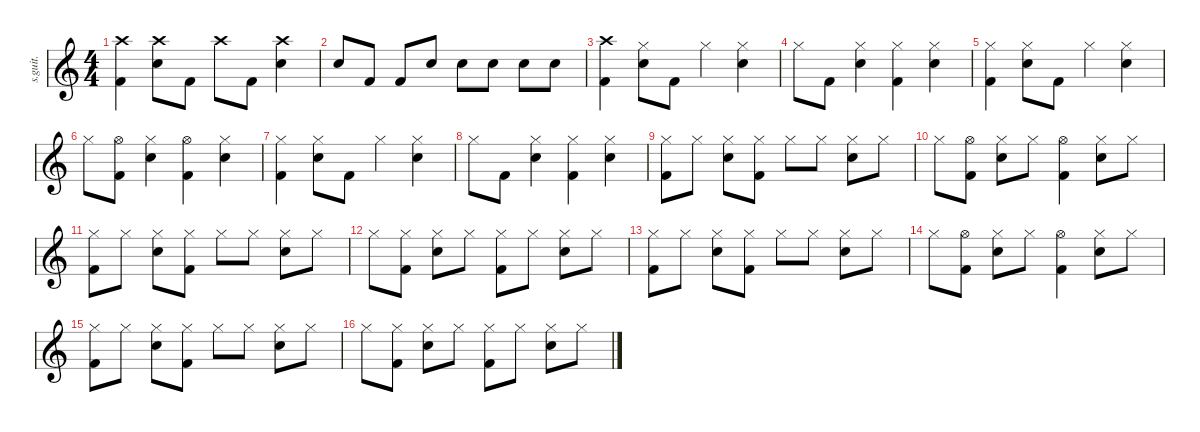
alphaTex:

\defaultSystemsLayout 4
\hideDynamics
\bracketExtendMode nobrackets
\track ("" "s.guit.") {instrument percussion}
\staff {score}
\articulation defaults
\ts (4 4)
\tempo (190 hide)
\clef g2
\ks c
("Crash high (hit)" "Kick (hit) 2").4{dy f} ("Crash high (hit)" "Snare (hit) 2").8 "Kick (hit) 2".8 "Crash high (hit)".8 "Kick (hit) 2".8 ("Crash high (hit)" "Snare (hit) 2").4 |
"Snare (hit) 2".8 "Kick (hit) 2".8 "Kick (hit) 2".8 "Snare (hit) 2".8 "Snare (hit) 2".8 "Snare (hit) 2".8 "Snare (hit) 2".8 "Snare (hit) 2".8 |
("Crash high (hit)" "Kick (hit) 2").4 ("Hi-Hat (closed)" "Snare (hit) 2").8 "Kick (hit) 2".8 "Hi-Hat (closed)".4 ("Hi-Hat (closed)" "Snare (hit) 2").4 |
"Hi-Hat (closed)".8 "Kick (hit) 2".8 ("Hi-Hat (closed)" "Snare (hit) 2").4 ("Hi-Hat (closed)" "Kick (hit) 2").4 ("Hi-Hat (closed)" "Snare (hit) 2").4 |
("Hi-Hat (closed)" "Kick (hit) 2").4 ("Hi-Hat (closed)" "Snare (hit) 2").8 "Kick (hit) 2".8 "Hi-Hat (closed)".4 ("Hi-Hat (closed)" "Snare (hit) 2").4 |
"Hi-Hat (closed)".8 ("Hi-Hat (open)" "Kick (hit) 2").8 ("Hi-Hat (closed)" "Snare (hit) 2").4 ("Hi-Hat (open)" "Kick (hit) 2").4 ("Hi-Hat (closed)" "Snare (hit) 2").4 |
("Hi-Hat (closed)" "Kick (hit) 2").4 ("Hi-Hat (closed)" "Snare (hit) 2").8 "Kick (hit) 2".8 "Hi-Hat (closed)".4 ("Hi-Hat (closed)" "Snare (hit) 2").4 |
"Hi-Hat (closed)".8 "Kick (hit) 2".8 ("Hi-Hat (closed)" "Snare (hit) 2").4 ("Hi-Hat (closed)" "Kick (hit) 2").4 ("Hi-Hat (closed)" "Snare (hit) 2").4 |
("Hi-Hat (closed)" "Kick (hit) 2").8 "Hi-Hat (closed)".8 ("Hi-Hat (closed)" "Snare (hit) 2").8 ("Hi-Hat (closed)" "Kick (hit) 2").8 "Hi-Hat (closed)".8 "Hi-Hat (closed)".8 ("Hi-Hat (closed)" "Snare (hit) 2").8 "Hi-Hat (closed)".8 |
"Hi-Hat (closed)".8 ("Hi-Hat (open)" "Kick (hit) 2").8 ("Hi-Hat (closed)" "Snare (hit) 2").8 "Hi-Hat (closed)".8 ("Hi-Hat (open)" "Kick (hit) 2").4 ("Hi-Hat (closed)" "Snare (hit) 2").8 "Hi-Hat (closed)".8 |
("Hi-Hat (closed)" "Kick (hit) 2").8 "Hi-Hat (closed)".8 ("Hi-Hat (closed)" "Snare (hit) 2").8 ("Hi-Hat (closed)" "Kick (hit) 2").8 "Hi-Hat (closed)".8 "Hi-Hat (closed)".8 ("Hi-Hat (closed)" "Snare (hit) 2").8 "Hi-Hat (closed)".8 |
"Hi-Hat (closed)".8 ("Hi-Hat (closed)" "Kick (hit) 2").8 ("Hi-Hat (closed)" "Snare (hit) 2").8 "Hi-Hat (closed)".8 ("Hi-Hat (closed)" "Kick (hit) 2").8 "Hi-Hat (closed)".8 ("Hi-Hat (closed)" "Snare (hit) 2").8 "Hi-Hat (closed)".8 |
("Hi-Hat (closed)" "Kick (hit) 2").8 "Hi-Hat (closed)".8 ("Hi-Hat (closed)" "Snare (hit) 2").8 ("Hi-Hat (closed)" "Kick (hit) 2").8 "Hi-Hat (closed)".8 "Hi-Hat (closed)".8 ("Hi-Hat (closed)" "Snare (hit) 2").8 "Hi-Hat (closed)".8 |
"Hi-Hat (closed)".8 ("Hi-Hat (open)" "Kick (hit) 2").8 ("Hi-Hat (closed)" "Snare (hit) 2").8 "Hi-Hat (closed)".8 ("Hi-Hat (open)" "Kick (hit) 2").4 ("Hi-Hat (closed)" "Snare (hit) 2").8 "Hi-Hat (closed)".8 |
("Hi-Hat (closed)" "Kick (hit) 2").8 "Hi-Hat (closed)".8 ("Hi-Hat (closed)" "Snare (hit) 2").8 ("Hi-Hat (closed)" "Kick (hit) 2").8 "Hi-Hat (closed)".8 "Hi-Hat (closed)".8 ("Hi-Hat (closed)" "Snare (hit) 2").8 "Hi-Hat (closed)".8 |
"Hi-Hat (closed)".8 ("Hi-Hat (closed)" "Kick (hit) 2").8 ("Hi-Hat (closed)" "Snare (hit) 2").8 "Hi-Hat (closed)".8 ("Hi-Hat (closed)" "Kick (hit) 2").8 "Hi-Hat (closed)".8 ("Hi-Hat (closed)" "Snare (hit) 2").8 "Hi-Hat (closed)".8
